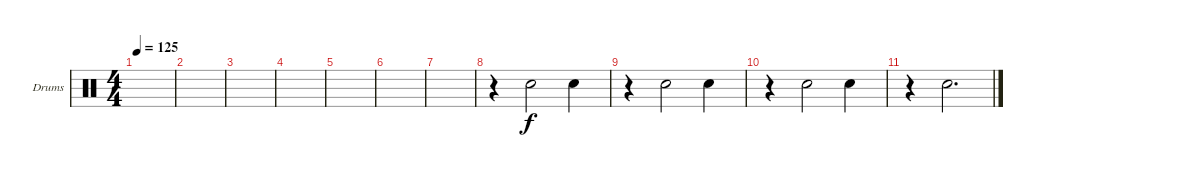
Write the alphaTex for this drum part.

\defaultSystemsLayout 4
\bracketExtendMode groupsimilarinstruments
\firstSystemTrackNameOrientation horizontal
\otherSystemsTrackNameOrientation horizontal
\track ("Drumkit" "Drums") {instrument percussion}
\staff {score}
\articulation defaults
\ts (4 4)
\tempo 125
\clef neutral
\scale
0.333333
\ks c
|
\scale
0.333333 |
\scale
0.333333 |
\scale
0.333333 |
\scale
0.333333 |
\scale
0.333333 |
\scale
0.333333 |
\scale
0.333333 r.4 "Snare (hit) 2".2 "Snare (hit) 2".4 |
\scale
0.333333 r.4 "Snare (hit) 2".2 "Snare (hit) 2".4 |
\scale
0.333333 r.4 "Snare (hit) 2".2 "Snare (hit) 2".4 |
\scale
0.333333 r.4 "Snare (hit) 2".2{d} |
\scale
0.333333 |
\scale
0.333333 |
\scale
0.333333 |
\scale
0.333333 |
\scale
0.333333
